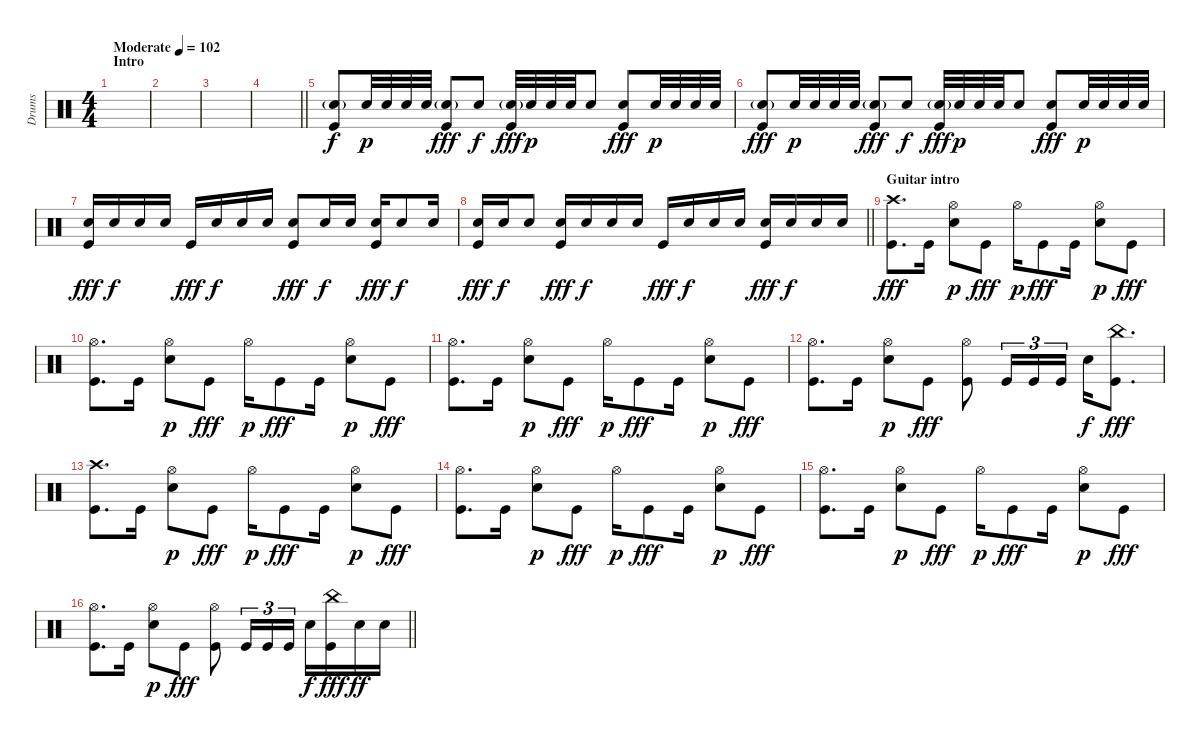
\track ("Drums" "Drums") {instrument percussion}
\staff
\articulation defaults
\ts (4 4)
\section ("" "Intro")
\tempo (102 "Moderate")
\clef neutral
\ks c
|
|
|
\barLineRight lightlight
|
("Electric Snare (hit)"{g} "Kick (hit)").8 "Electric Snare (hit)".32{dy p} "Electric Snare (hit)".32 "Electric Snare (hit)".32 "Electric Snare (hit)".32 ("Electric Snare (hit)"{g} "Kick (hit)").8{dy fff} "Electric Snare (hit)".8{dy f} ("Electric Snare (hit)"{g} "Kick (hit)").32{dy fff} "Electric Snare (hit)".32{dy p} "Electric Snare (hit)".32 "Electric Snare (hit)".32 "Electric Snare (hit)".8 ("Electric Snare (hit)" "Kick (hit)").8{dy fff} "Electric Snare (hit)".32{dy p} "Electric Snare (hit)".32 "Electric Snare (hit)".32 "Electric Snare (hit)".32 |
("Electric Snare (hit)"{g} "Kick (hit)").8{dy fff} "Electric Snare (hit)".32{dy p} "Electric Snare (hit)".32 "Electric Snare (hit)".32 "Electric Snare (hit)".32 ("Electric Snare (hit)"{g} "Kick (hit)").8{dy fff} "Electric Snare (hit)".8{dy f} ("Electric Snare (hit)"{g} "Kick (hit)").32{dy fff} "Electric Snare (hit)".32{dy p} "Electric Snare (hit)".32 "Electric Snare (hit)".32 "Electric Snare (hit)".8 ("Electric Snare (hit)" "Kick (hit)").8{dy fff} "Electric Snare (hit)".32{dy p} "Electric Snare (hit)".32 "Electric Snare (hit)".32 "Electric Snare (hit)".32 |
("Electric Snare (hit)" "Kick (hit)").16{dy fff} "Electric Snare (hit)".16{dy f} "Electric Snare (hit)".16 "Electric Snare (hit)".16 "Kick (hit)".16{dy fff} "Electric Snare (hit)".16{dy f} "Electric Snare (hit)".16 "Electric Snare (hit)".16 ("Electric Snare (hit)" "Kick (hit)").8{dy fff} "Electric Snare (hit)".16{dy f} "Electric Snare (hit)".16 ("Electric Snare (hit)" "Kick (hit)").16{dy fff} "Electric Snare (hit)".8{dy f} "Electric Snare (hit)".16 |
\barLineRight lightlight
("Electric Snare (hit)" "Kick (hit)").16{dy fff} "Electric Snare (hit)".16{dy f} "Electric Snare (hit)".8 ("Electric Snare (hit)" "Kick (hit)").16{dy fff} "Electric Snare (hit)".16{dy f} "Electric Snare (hit)".16 "Electric Snare (hit)".16 "Kick (hit)".16{dy fff} "Electric Snare (hit)".16{dy f} "Electric Snare (hit)".16 "Electric Snare (hit)".16 ("Electric Snare (hit)" "Kick (hit)").16{dy fff} "Electric Snare (hit)".16{dy f} "Electric Snare (hit)".16 "Electric Snare (hit)".16 |
\section ("" "Guitar intro")
("Crash high (hit)" "Kick (hit)").8{d dy fff} "Kick (hit)".16 ("Hi-Hat (open)" "Electric Snare (hit)").8{dy p} "Kick (hit)".8{dy fff} "Hi-Hat (open)".16{dy p} "Kick (hit)".8{dy fff} "Kick (hit)".16 ("Hi-Hat (open)" "Electric Snare (hit)").8{dy p} "Kick (hit)".8{dy fff} |
("Hi-Hat (open)" "Kick (hit)").8{d} "Kick (hit)".16 ("Hi-Hat (open)" "Electric Snare (hit)").8{dy p} "Kick (hit)".8{dy fff} "Hi-Hat (open)".16{dy p} "Kick (hit)".8{dy fff} "Kick (hit)".16 ("Hi-Hat (open)" "Electric Snare (hit)").8{dy p} "Kick (hit)".8{dy fff} |
("Hi-Hat (open)" "Kick (hit)").8{d} "Kick (hit)".16 ("Hi-Hat (open)" "Electric Snare (hit)").8{dy p} "Kick (hit)".8{dy fff} "Hi-Hat (open)".16{dy p} "Kick (hit)".8{dy fff} "Kick (hit)".16 ("Hi-Hat (open)" "Electric Snare (hit)").8{dy p} "Kick (hit)".8{dy fff} |
("Hi-Hat (open)" "Kick (hit)").8{d} "Kick (hit)".16 ("Hi-Hat (open)" "Electric Snare (hit)").8{dy p} "Kick (hit)".8{dy fff} ("Hi-Hat (open)" "Kick (hit)").8 "Kick (hit)".16{tu (3 2)} "Kick (hit)".16{tu (3 2)} "Kick (hit)".16{tu (3 2)} "Electric Snare (hit)".16{dy f} ("China (hit)" "Kick (hit)").8{d dy fff} |
("Crash high (hit)" "Kick (hit)").8{d} "Kick (hit)".16 ("Hi-Hat (open)" "Electric Snare (hit)").8{dy p} "Kick (hit)".8{dy fff} "Hi-Hat (open)".16{dy p} "Kick (hit)".8{dy fff} "Kick (hit)".16 ("Hi-Hat (open)" "Electric Snare (hit)").8{dy p} "Kick (hit)".8{dy fff} |
("Hi-Hat (open)" "Kick (hit)").8{d} "Kick (hit)".16 ("Hi-Hat (open)" "Electric Snare (hit)").8{dy p} "Kick (hit)".8{dy fff} "Hi-Hat (open)".16{dy p} "Kick (hit)".8{dy fff} "Kick (hit)".16 ("Hi-Hat (open)" "Electric Snare (hit)").8{dy p} "Kick (hit)".8{dy fff} |
("Hi-Hat (open)" "Kick (hit)").8{d} "Kick (hit)".16 ("Hi-Hat (open)" "Electric Snare (hit)").8{dy p} "Kick (hit)".8{dy fff} "Hi-Hat (open)".16{dy p} "Kick (hit)".8{dy fff} "Kick (hit)".16 ("Hi-Hat (open)" "Electric Snare (hit)").8{dy p} "Kick (hit)".8{dy fff} |
\barLineRight lightlight
("Hi-Hat (open)" "Kick (hit)").8{d} "Kick (hit)".16 ("Hi-Hat (open)" "Electric Snare (hit)").8{dy p} "Kick (hit)".8{dy fff} ("Hi-Hat (open)" "Kick (hit)").8 "Kick (hit)".16{tu (3 2)} "Kick (hit)".16{tu (3 2)} "Kick (hit)".16{tu (3 2)} "Electric Snare (hit)".16{dy f} ("China (hit)" "Kick (hit)").16{dy fff} "Electric Snare (hit)".16{dy ff} "Electric Snare (hit)".16
